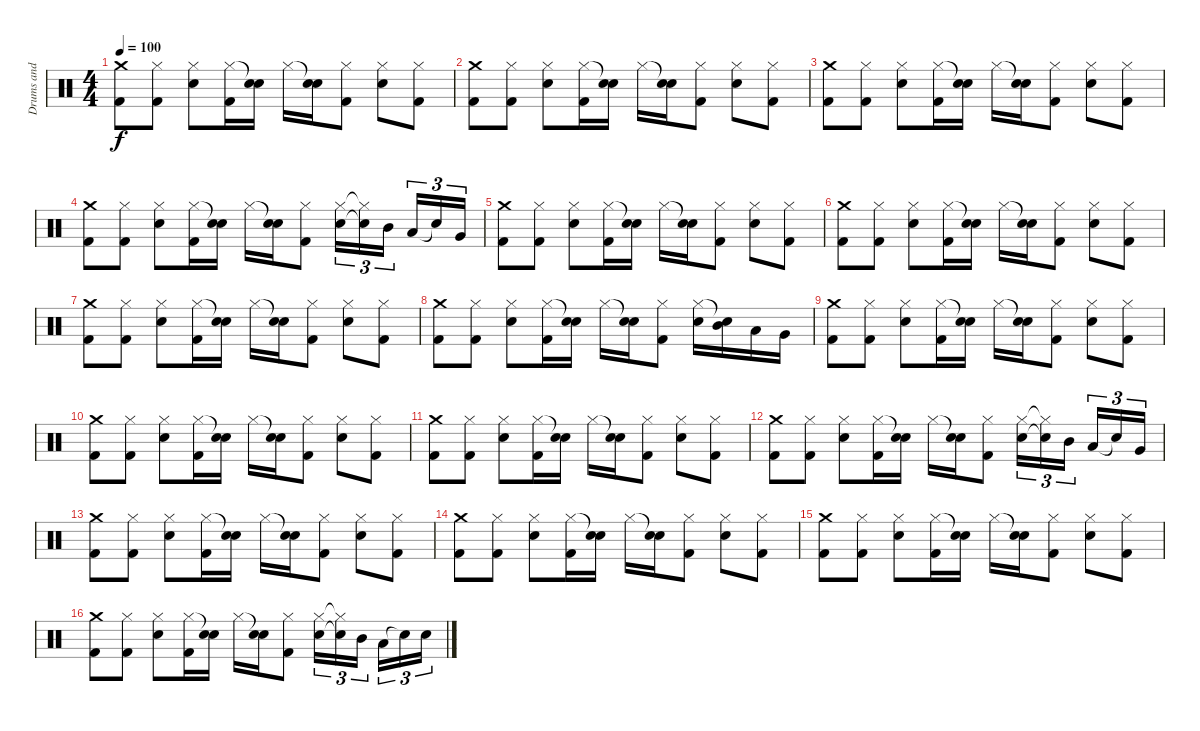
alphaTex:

\track ("Drums and Percussion" "Drums and ") {instrument percussion}
\staff {score}
\articulation defaults
\ts (4 4)
\tempo 100
\clef neutral
\ks c
("Crash medium (hit)" "Kick (hit) 2").8{dy f} ("Hi-Hat (closed)" "Kick (hit) 2").8 ("Hi-Hat (closed)" "Electric Snare (hit)").8 ("Hi-Hat (closed)" "Kick (hit) 2").16 ("Snare (hit)"{t} "Electric Snare (hit)").16 "Hi-Hat (closed)".16 ("Snare (hit)"{t} "Electric Snare (hit)").16 ("Hi-Hat (closed)" "Kick (hit) 2").8 ("Hi-Hat (closed)" "Electric Snare (hit)").8 ("Hi-Hat (closed)" "Kick (hit) 2").8 |
("Crash medium (hit)" "Kick (hit) 2").8 ("Hi-Hat (closed)" "Kick (hit) 2").8 ("Hi-Hat (closed)" "Electric Snare (hit)").8 ("Hi-Hat (closed)" "Kick (hit) 2").16 ("Snare (hit)"{t} "Electric Snare (hit)").16 "Hi-Hat (closed)".16 ("Snare (hit)"{t} "Electric Snare (hit)").16 ("Hi-Hat (closed)" "Kick (hit) 2").8 ("Hi-Hat (closed)" "Electric Snare (hit)").8 ("Hi-Hat (closed)" "Kick (hit) 2").8 |
("Crash medium (hit)" "Kick (hit) 2").8 ("Hi-Hat (closed)" "Kick (hit) 2").8 ("Hi-Hat (closed)" "Electric Snare (hit)").8 ("Hi-Hat (closed)" "Kick (hit) 2").16 ("Snare (hit)"{t} "Electric Snare (hit)").16 "Hi-Hat (closed)".16 ("Snare (hit)"{t} "Electric Snare (hit)").16 ("Hi-Hat (closed)" "Kick (hit) 2").8 ("Hi-Hat (closed)" "Electric Snare (hit)").8 ("Hi-Hat (closed)" "Kick (hit) 2").8 |
("Crash medium (hit)" "Kick (hit) 2").8 ("Hi-Hat (closed)" "Kick (hit) 2").8 ("Hi-Hat (closed)" "Electric Snare (hit)").8 ("Hi-Hat (closed)" "Kick (hit) 2").16 ("Snare (hit)"{t} "Electric Snare (hit)").16 "Hi-Hat (closed)".16 ("Snare (hit)"{t} "Electric Snare (hit)").16 ("Hi-Hat (closed)" "Kick (hit) 2").8 ("Hi-Hat (closed)" "Electric Snare (hit)").16{tu (3 2)} ("Hi-Hat (closed)"{t} "Snare (hit)"{t}).16{tu (3 2)} "Mid Tom (hit)".16{tu (3 2)} "Low Tom (hit)".16{tu (3 2)} "Snare (hit)"{t}.16{tu (3 2)} "Very Low Tom (hit)".16{tu (3 2)} |
("Crash medium (hit)" "Kick (hit) 2").8 ("Hi-Hat (closed)" "Kick (hit) 2").8 ("Hi-Hat (closed)" "Electric Snare (hit)").8 ("Hi-Hat (closed)" "Kick (hit) 2").16 ("Snare (hit)"{t} "Electric Snare (hit)").16 "Hi-Hat (closed)".16 ("Snare (hit)"{t} "Electric Snare (hit)").16 ("Hi-Hat (closed)" "Kick (hit) 2").8 ("Hi-Hat (closed)" "Electric Snare (hit)").8 ("Hi-Hat (closed)" "Kick (hit) 2").8 |
("Crash medium (hit)" "Kick (hit) 2").8 ("Hi-Hat (closed)" "Kick (hit) 2").8 ("Hi-Hat (closed)" "Electric Snare (hit)").8 ("Hi-Hat (closed)" "Kick (hit) 2").16 ("Snare (hit)"{t} "Electric Snare (hit)").16 "Hi-Hat (closed)".16 ("Snare (hit)"{t} "Electric Snare (hit)").16 ("Hi-Hat (closed)" "Kick (hit) 2").8 ("Hi-Hat (closed)" "Electric Snare (hit)").8 ("Hi-Hat (closed)" "Kick (hit) 2").8 |
("Crash medium (hit)" "Kick (hit) 2").8 ("Hi-Hat (closed)" "Kick (hit) 2").8 ("Hi-Hat (closed)" "Electric Snare (hit)").8 ("Hi-Hat (closed)" "Kick (hit) 2").16 ("Snare (hit)"{t} "Electric Snare (hit)").16 "Hi-Hat (closed)".16 ("Snare (hit)"{t} "Electric Snare (hit)").16 ("Hi-Hat (closed)" "Kick (hit) 2").8 ("Hi-Hat (closed)" "Electric Snare (hit)").8 ("Hi-Hat (closed)" "Kick (hit) 2").8 |
("Crash medium (hit)" "Kick (hit) 2").8 ("Hi-Hat (closed)" "Kick (hit) 2").8 ("Hi-Hat (closed)" "Electric Snare (hit)").8 ("Hi-Hat (closed)" "Kick (hit) 2").16 ("Snare (hit)"{t} "Electric Snare (hit)").16 "Hi-Hat (closed)".16 ("Snare (hit)"{t} "Electric Snare (hit)").16 ("Hi-Hat (closed)" "Kick (hit) 2").8 ("Hi-Hat (closed)" "Electric Snare (hit)").16 ("Snare (hit)"{t} "Mid Tom (hit)").16 "Low Tom (hit)".16 "Very Low Tom (hit)".16 |
("Crash medium (hit)" "Kick (hit) 2").8 ("Hi-Hat (closed)" "Kick (hit) 2").8 ("Hi-Hat (closed)" "Electric Snare (hit)").8 ("Hi-Hat (closed)" "Kick (hit) 2").16 ("Snare (hit)"{t} "Electric Snare (hit)").16 "Hi-Hat (closed)".16 ("Snare (hit)"{t} "Electric Snare (hit)").16 ("Hi-Hat (closed)" "Kick (hit) 2").8 ("Hi-Hat (closed)" "Electric Snare (hit)").8 ("Hi-Hat (closed)" "Kick (hit) 2").8 |
("Crash medium (hit)" "Kick (hit) 2").8 ("Hi-Hat (closed)" "Kick (hit) 2").8 ("Hi-Hat (closed)" "Electric Snare (hit)").8 ("Hi-Hat (closed)" "Kick (hit) 2").16 ("Snare (hit)"{t} "Electric Snare (hit)").16 "Hi-Hat (closed)".16 ("Snare (hit)"{t} "Electric Snare (hit)").16 ("Hi-Hat (closed)" "Kick (hit) 2").8 ("Hi-Hat (closed)" "Electric Snare (hit)").8 ("Hi-Hat (closed)" "Kick (hit) 2").8 |
("Crash medium (hit)" "Kick (hit) 2").8 ("Hi-Hat (closed)" "Kick (hit) 2").8 ("Hi-Hat (closed)" "Electric Snare (hit)").8 ("Hi-Hat (closed)" "Kick (hit) 2").16 ("Snare (hit)"{t} "Electric Snare (hit)").16 "Hi-Hat (closed)".16 ("Snare (hit)"{t} "Electric Snare (hit)").16 ("Hi-Hat (closed)" "Kick (hit) 2").8 ("Hi-Hat (closed)" "Electric Snare (hit)").8 ("Hi-Hat (closed)" "Kick (hit) 2").8 |
("Crash medium (hit)" "Kick (hit) 2").8 ("Hi-Hat (closed)" "Kick (hit) 2").8 ("Hi-Hat (closed)" "Electric Snare (hit)").8 ("Hi-Hat (closed)" "Kick (hit) 2").16 ("Snare (hit)"{t} "Electric Snare (hit)").16 "Hi-Hat (closed)".16 ("Snare (hit)"{t} "Electric Snare (hit)").16 ("Hi-Hat (closed)" "Kick (hit) 2").8 ("Hi-Hat (closed)" "Electric Snare (hit)").16{tu (3 2)} ("Hi-Hat (closed)"{t} "Snare (hit)"{t}).16{tu (3 2)} "Mid Tom (hit)".16{tu (3 2)} "Low Tom (hit)".16{tu (3 2)} "Snare (hit)"{t}.16{tu (3 2)} "Very Low Tom (hit)".16{tu (3 2)} |
("Crash medium (hit)" "Kick (hit) 2").8 ("Hi-Hat (closed)" "Kick (hit) 2").8 ("Hi-Hat (closed)" "Electric Snare (hit)").8 ("Hi-Hat (closed)" "Kick (hit) 2").16 ("Snare (hit)"{t} "Electric Snare (hit)").16 "Hi-Hat (closed)".16 ("Snare (hit)"{t} "Electric Snare (hit)").16 ("Hi-Hat (closed)" "Kick (hit) 2").8 ("Hi-Hat (closed)" "Electric Snare (hit)").8 ("Hi-Hat (closed)" "Kick (hit) 2").8 |
("Crash medium (hit)" "Kick (hit) 2").8 ("Hi-Hat (closed)" "Kick (hit) 2").8 ("Hi-Hat (closed)" "Electric Snare (hit)").8 ("Hi-Hat (closed)" "Kick (hit) 2").16 ("Snare (hit)"{t} "Electric Snare (hit)").16 "Hi-Hat (closed)".16 ("Snare (hit)"{t} "Electric Snare (hit)").16 ("Hi-Hat (closed)" "Kick (hit) 2").8 ("Hi-Hat (closed)" "Electric Snare (hit)").8 ("Hi-Hat (closed)" "Kick (hit) 2").8 |
("Crash medium (hit)" "Kick (hit) 2").8 ("Hi-Hat (closed)" "Kick (hit) 2").8 ("Hi-Hat (closed)" "Electric Snare (hit)").8 ("Hi-Hat (closed)" "Kick (hit) 2").16 ("Snare (hit)"{t} "Electric Snare (hit)").16 "Hi-Hat (closed)".16 ("Snare (hit)"{t} "Electric Snare (hit)").16 ("Hi-Hat (closed)" "Kick (hit) 2").8 ("Hi-Hat (closed)" "Electric Snare (hit)").8 ("Hi-Hat (closed)" "Kick (hit) 2").8 |
("Crash medium (hit)" "Kick (hit) 2").8 ("Hi-Hat (closed)" "Kick (hit) 2").8 ("Hi-Hat (closed)" "Electric Snare (hit)").8 ("Hi-Hat (closed)" "Kick (hit) 2").16 ("Snare (hit)"{t} "Electric Snare (hit)").16 "Hi-Hat (closed)".16 ("Snare (hit)"{t} "Electric Snare (hit)").16 ("Hi-Hat (closed)" "Kick (hit) 2").8 ("Hi-Hat (closed)" "Electric Snare (hit)").16{tu (3 2)} ("Hi-Hat (closed)"{t} "Snare (hit)"{t}).16{tu (3 2)} "Mid Tom (hit)".16{tu (3 2)} "Low Tom (hit)".16{tu (3 2)} "Snare (hit)"{t}.16{tu (3 2)} "Electric Snare (hit)".16{tu (3 2)}
